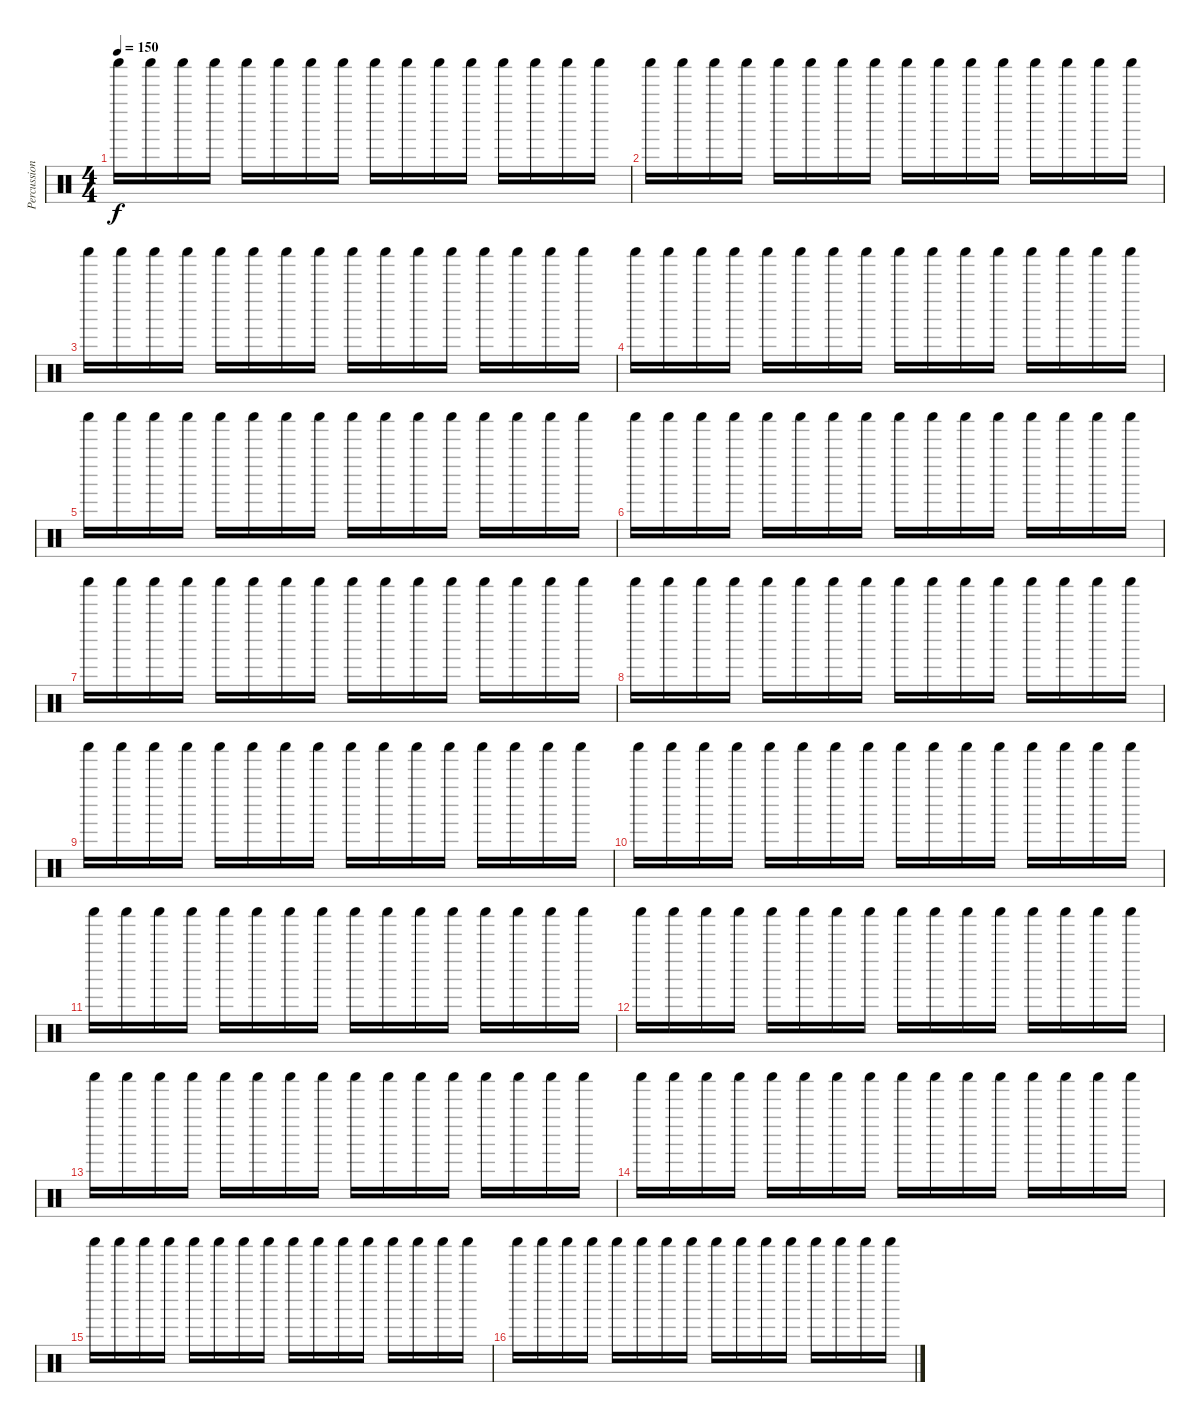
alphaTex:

\track ("Percussion" "Percussion") {instrument percussion}
\staff {score}
\articulation defaults
\ts (4 4)
\tempo 150
\clef neutral
\ks c "Shaker (hit)".16{dy f} "Shaker (hit)".16 "Shaker (hit)".16 "Shaker (hit)".16 "Shaker (hit)".16 "Shaker (hit)".16 "Shaker (hit)".16 "Shaker (hit)".16 "Shaker (hit)".16 "Shaker (hit)".16 "Shaker (hit)".16 "Shaker (hit)".16 "Shaker (hit)".16 "Shaker (hit)".16 "Shaker (hit)".16 "Shaker (hit)".16
|
"Shaker (hit)".16 "Shaker (hit)".16 "Shaker (hit)".16 "Shaker (hit)".16 "Shaker (hit)".16 "Shaker (hit)".16 "Shaker (hit)".16 "Shaker (hit)".16 "Shaker (hit)".16 "Shaker (hit)".16 "Shaker (hit)".16 "Shaker (hit)".16 "Shaker (hit)".16 "Shaker (hit)".16 "Shaker (hit)".16 "Shaker (hit)".16 |
"Shaker (hit)".16 "Shaker (hit)".16 "Shaker (hit)".16 "Shaker (hit)".16 "Shaker (hit)".16 "Shaker (hit)".16 "Shaker (hit)".16 "Shaker (hit)".16 "Shaker (hit)".16 "Shaker (hit)".16 "Shaker (hit)".16 "Shaker (hit)".16 "Shaker (hit)".16 "Shaker (hit)".16 "Shaker (hit)".16 "Shaker (hit)".16 |
"Shaker (hit)".16 "Shaker (hit)".16 "Shaker (hit)".16 "Shaker (hit)".16 "Shaker (hit)".16 "Shaker (hit)".16 "Shaker (hit)".16 "Shaker (hit)".16 "Shaker (hit)".16 "Shaker (hit)".16 "Shaker (hit)".16 "Shaker (hit)".16 "Shaker (hit)".16 "Shaker (hit)".16 "Shaker (hit)".16 "Shaker (hit)".16 |
"Shaker (hit)".16 "Shaker (hit)".16 "Shaker (hit)".16 "Shaker (hit)".16 "Shaker (hit)".16 "Shaker (hit)".16 "Shaker (hit)".16 "Shaker (hit)".16 "Shaker (hit)".16 "Shaker (hit)".16 "Shaker (hit)".16 "Shaker (hit)".16 "Shaker (hit)".16 "Shaker (hit)".16 "Shaker (hit)".16 "Shaker (hit)".16 |
"Shaker (hit)".16 "Shaker (hit)".16 "Shaker (hit)".16 "Shaker (hit)".16 "Shaker (hit)".16 "Shaker (hit)".16 "Shaker (hit)".16 "Shaker (hit)".16 "Shaker (hit)".16 "Shaker (hit)".16 "Shaker (hit)".16 "Shaker (hit)".16 "Shaker (hit)".16 "Shaker (hit)".16 "Shaker (hit)".16 "Shaker (hit)".16 |
"Shaker (hit)".16 "Shaker (hit)".16 "Shaker (hit)".16 "Shaker (hit)".16 "Shaker (hit)".16 "Shaker (hit)".16 "Shaker (hit)".16 "Shaker (hit)".16 "Shaker (hit)".16 "Shaker (hit)".16 "Shaker (hit)".16 "Shaker (hit)".16 "Shaker (hit)".16 "Shaker (hit)".16 "Shaker (hit)".16 "Shaker (hit)".16 |
"Shaker (hit)".16 "Shaker (hit)".16 "Shaker (hit)".16 "Shaker (hit)".16 "Shaker (hit)".16 "Shaker (hit)".16 "Shaker (hit)".16 "Shaker (hit)".16 "Shaker (hit)".16 "Shaker (hit)".16 "Shaker (hit)".16 "Shaker (hit)".16 "Shaker (hit)".16 "Shaker (hit)".16 "Shaker (hit)".16 "Shaker (hit)".16 |
"Shaker (hit)".16 "Shaker (hit)".16 "Shaker (hit)".16 "Shaker (hit)".16 "Shaker (hit)".16 "Shaker (hit)".16 "Shaker (hit)".16 "Shaker (hit)".16 "Shaker (hit)".16 "Shaker (hit)".16 "Shaker (hit)".16 "Shaker (hit)".16 "Shaker (hit)".16 "Shaker (hit)".16 "Shaker (hit)".16 "Shaker (hit)".16 |
"Shaker (hit)".16 "Shaker (hit)".16 "Shaker (hit)".16 "Shaker (hit)".16 "Shaker (hit)".16 "Shaker (hit)".16 "Shaker (hit)".16 "Shaker (hit)".16 "Shaker (hit)".16 "Shaker (hit)".16 "Shaker (hit)".16 "Shaker (hit)".16 "Shaker (hit)".16 "Shaker (hit)".16 "Shaker (hit)".16 "Shaker (hit)".16 |
"Shaker (hit)".16 "Shaker (hit)".16 "Shaker (hit)".16 "Shaker (hit)".16 "Shaker (hit)".16 "Shaker (hit)".16 "Shaker (hit)".16 "Shaker (hit)".16 "Shaker (hit)".16 "Shaker (hit)".16 "Shaker (hit)".16 "Shaker (hit)".16 "Shaker (hit)".16 "Shaker (hit)".16 "Shaker (hit)".16 "Shaker (hit)".16 |
"Shaker (hit)".16 "Shaker (hit)".16 "Shaker (hit)".16 "Shaker (hit)".16 "Shaker (hit)".16 "Shaker (hit)".16 "Shaker (hit)".16 "Shaker (hit)".16 "Shaker (hit)".16 "Shaker (hit)".16 "Shaker (hit)".16 "Shaker (hit)".16 "Shaker (hit)".16 "Shaker (hit)".16 "Shaker (hit)".16 "Shaker (hit)".16 |
"Shaker (hit)".16 "Shaker (hit)".16 "Shaker (hit)".16 "Shaker (hit)".16 "Shaker (hit)".16 "Shaker (hit)".16 "Shaker (hit)".16 "Shaker (hit)".16 "Shaker (hit)".16 "Shaker (hit)".16 "Shaker (hit)".16 "Shaker (hit)".16 "Shaker (hit)".16 "Shaker (hit)".16 "Shaker (hit)".16 "Shaker (hit)".16 |
"Shaker (hit)".16 "Shaker (hit)".16 "Shaker (hit)".16 "Shaker (hit)".16 "Shaker (hit)".16 "Shaker (hit)".16 "Shaker (hit)".16 "Shaker (hit)".16 "Shaker (hit)".16 "Shaker (hit)".16 "Shaker (hit)".16 "Shaker (hit)".16 "Shaker (hit)".16 "Shaker (hit)".16 "Shaker (hit)".16 "Shaker (hit)".16 |
"Shaker (hit)".16 "Shaker (hit)".16 "Shaker (hit)".16 "Shaker (hit)".16 "Shaker (hit)".16 "Shaker (hit)".16 "Shaker (hit)".16 "Shaker (hit)".16 "Shaker (hit)".16 "Shaker (hit)".16 "Shaker (hit)".16 "Shaker (hit)".16 "Shaker (hit)".16 "Shaker (hit)".16 "Shaker (hit)".16 "Shaker (hit)".16 |
"Shaker (hit)".16 "Shaker (hit)".16 "Shaker (hit)".16 "Shaker (hit)".16 "Shaker (hit)".16 "Shaker (hit)".16 "Shaker (hit)".16 "Shaker (hit)".16 "Shaker (hit)".16 "Shaker (hit)".16 "Shaker (hit)".16 "Shaker (hit)".16 "Shaker (hit)".16 "Shaker (hit)".16 "Shaker (hit)".16 "Shaker (hit)".16
